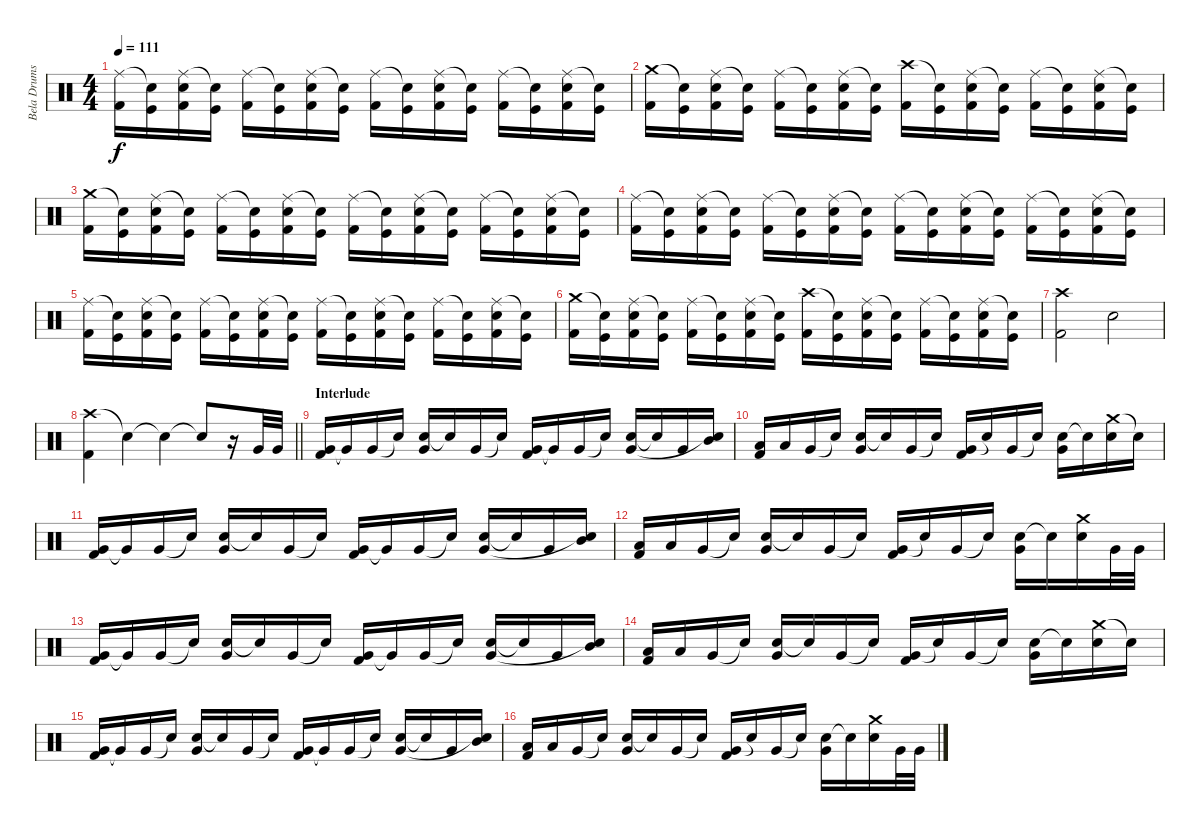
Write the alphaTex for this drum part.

\track ("Bela Drums" "Bela Drums") {instrument percussion}
\staff {score}
\articulation defaults
\ts (4 4)
\tempo 111
\clef neutral
\ks c
("Ride (middle)" "Kick (hit) 2").16{dy f} ("Snare (hit)"{t} "Kick (hit)").16 ("Ride (middle)" "Snare (hit) 2" "Kick (hit) 2").16 ("Snare (hit)"{t} "Kick (hit)").16 ("Ride (middle)" "Kick (hit) 2").16 ("Snare (hit)"{t} "Kick (hit)").16 ("Ride (middle)" "Snare (hit) 2" "Kick (hit) 2").16 ("Snare (hit)"{t} "Kick (hit)").16 ("Ride (middle)" "Kick (hit) 2").16 ("Snare (hit)"{t} "Kick (hit)").16 ("Ride (middle)" "Snare (hit) 2" "Kick (hit) 2").16 ("Snare (hit)"{t} "Kick (hit)").16 ("Ride (middle)" "Kick (hit) 2").16 ("Snare (hit)"{t} "Kick (hit)").16 ("Ride (middle)" "Snare (hit) 2" "Kick (hit) 2").16 ("Snare (hit)"{t} "Kick (hit)").16 |
("Crash medium (hit)" "Kick (hit) 2").16 ("Snare (hit)"{t} "Kick (hit)").16 ("Ride (middle)" "Snare (hit) 2" "Kick (hit) 2").16 ("Snare (hit)"{t} "Kick (hit)").16 ("Ride (middle)" "Kick (hit) 2").16 ("Snare (hit)"{t} "Kick (hit)").16 ("Ride (middle)" "Snare (hit) 2" "Kick (hit) 2").16 ("Snare (hit)"{t} "Kick (hit)").16 ("Crash high (hit)" "Kick (hit) 2").16 ("Snare (hit)"{t} "Kick (hit)").16 ("Ride (middle)" "Snare (hit) 2" "Kick (hit) 2").16 ("Snare (hit)"{t} "Kick (hit)").16 ("Ride (middle)" "Kick (hit) 2").16 ("Snare (hit)"{t} "Kick (hit)").16 ("Ride (middle)" "Snare (hit) 2" "Kick (hit) 2").16 ("Snare (hit)"{t} "Kick (hit)").16 |
("Crash medium (hit)" "Kick (hit) 2").16 ("Snare (hit)"{t} "Kick (hit)").16 ("Ride (middle)" "Snare (hit) 2" "Kick (hit) 2").16 ("Snare (hit)"{t} "Kick (hit)").16 ("Ride (middle)" "Kick (hit) 2").16 ("Snare (hit)"{t} "Kick (hit)").16 ("Ride (middle)" "Snare (hit) 2" "Kick (hit) 2").16 ("Snare (hit)"{t} "Kick (hit)").16 ("Ride (middle)" "Kick (hit) 2").16 ("Snare (hit)"{t} "Kick (hit)").16 ("Ride (middle)" "Snare (hit) 2" "Kick (hit) 2").16 ("Snare (hit)"{t} "Kick (hit)").16 ("Ride (middle)" "Kick (hit) 2").16 ("Snare (hit)"{t} "Kick (hit)").16 ("Ride (middle)" "Snare (hit) 2" "Kick (hit) 2").16 ("Snare (hit)"{t} "Kick (hit)").16 |
("Ride (middle)" "Kick (hit) 2").16 ("Snare (hit)"{t} "Kick (hit)").16 ("Ride (middle)" "Snare (hit) 2" "Kick (hit) 2").16 ("Snare (hit)"{t} "Kick (hit)").16 ("Ride (middle)" "Kick (hit) 2").16 ("Snare (hit)"{t} "Kick (hit)").16 ("Ride (middle)" "Snare (hit) 2" "Kick (hit) 2").16 ("Snare (hit)"{t} "Kick (hit)").16 ("Ride (middle)" "Kick (hit) 2").16 ("Snare (hit)"{t} "Kick (hit)").16 ("Ride (middle)" "Snare (hit) 2" "Kick (hit) 2").16 ("Snare (hit)"{t} "Kick (hit)").16 ("Ride (middle)" "Kick (hit) 2").16 ("Snare (hit)"{t} "Kick (hit)").16 ("Ride (middle)" "Snare (hit) 2" "Kick (hit) 2").16 ("Snare (hit)"{t} "Kick (hit)").16 |
("Ride (middle)" "Kick (hit) 2").16 ("Snare (hit)"{t} "Kick (hit)").16 ("Ride (middle)" "Snare (hit) 2" "Kick (hit) 2").16 ("Snare (hit)"{t} "Kick (hit)").16 ("Ride (middle)" "Kick (hit) 2").16 ("Snare (hit)"{t} "Kick (hit)").16 ("Ride (middle)" "Snare (hit) 2" "Kick (hit) 2").16 ("Snare (hit)"{t} "Kick (hit)").16 ("Ride (middle)" "Kick (hit) 2").16 ("Snare (hit)"{t} "Kick (hit)").16 ("Ride (middle)" "Snare (hit) 2" "Kick (hit) 2").16 ("Snare (hit)"{t} "Kick (hit)").16 ("Ride (middle)" "Kick (hit) 2").16 ("Snare (hit)"{t} "Kick (hit)").16 ("Ride (middle)" "Snare (hit) 2" "Kick (hit) 2").16 ("Snare (hit)"{t} "Kick (hit)").16 |
("Crash medium (hit)" "Kick (hit) 2").16 ("Snare (hit)"{t} "Kick (hit)").16 ("Ride (middle)" "Snare (hit) 2" "Kick (hit) 2").16 ("Snare (hit)"{t} "Kick (hit)").16 ("Ride (middle)" "Kick (hit) 2").16 ("Snare (hit)"{t} "Kick (hit)").16 ("Ride (middle)" "Snare (hit) 2" "Kick (hit) 2").16 ("Snare (hit)"{t} "Kick (hit)").16 ("Crash high (hit)" "Kick (hit) 2").16 ("Snare (hit)"{t} "Kick (hit)").16 ("Ride (middle)" "Snare (hit) 2" "Kick (hit) 2").16 ("Snare (hit)"{t} "Kick (hit)").16 ("Ride (middle)" "Kick (hit) 2").16 ("Snare (hit)"{t} "Kick (hit)").16 ("Ride (middle)" "Snare (hit) 2" "Kick (hit) 2").16 ("Snare (hit)"{t} "Kick (hit)").16 |
("Crash high (hit)" "Kick (hit) 2").2 "Snare (hit) 2".2 |
\barLineRight lightlight
("Crash high (hit)" "Kick (hit) 2").4 "Snare (hit)"{t}.4 "Snare (hit)"{t}.4 "Snare (hit)"{t}.8 r.16 "Very Low Tom (hit)".32 "Very Low Tom (hit)".32 |
\section ("" "Interlude")
("Very Low Tom (hit)" "Kick (hit) 2").16 "Very Low Tom (hit)"{t}.16 "Very Low Tom (hit)".16 "Snare (hit)"{t}.16 ("Snare (hit) 2" "Very Low Tom (hit)").16 "Snare (hit)"{t}.16 "Very Low Tom (hit)".16 "Snare (hit)"{t}.16 ("Very Low Tom (hit)" "Kick (hit) 2").16 "Very Low Tom (hit)"{t}.16 "Very Low Tom (hit)".16 "Snare (hit)"{t}.16 ("Snare (hit) 2" "Very Low Tom (hit)").16 "Snare (hit)"{t}.16 "Very Low Tom (hit)".16 ("Mid Tom (hit)" "Snare (hit)"{t}).16 |
("Low Tom (hit)" "Kick (hit) 2").16 "Low Tom (hit)".16 "Very Low Tom (hit)".16 "Snare (hit)"{t}.16 ("Snare (hit) 2" "Very Low Tom (hit)").16 "Snare (hit)"{t}.16 "Very Low Tom (hit)".16 "Snare (hit)"{t}.16 ("Very Low Tom (hit)" "Kick (hit) 2").16 "Snare (hit)"{t}.16 "Very Low Tom (hit)".16 "Snare (hit)"{t}.16 ("Snare (hit) 2" "Very Low Tom (hit)").16 "Snare (hit)"{t}.16 ("Crash medium (hit)" "Snare (hit) 2").16 "Snare (hit)"{t}.16 |
("Very Low Tom (hit)" "Kick (hit) 2").16 "Very Low Tom (hit)"{t}.16 "Very Low Tom (hit)".16 "Snare (hit)"{t}.16 ("Snare (hit) 2" "Very Low Tom (hit)").16 "Snare (hit)"{t}.16 "Very Low Tom (hit)".16 "Snare (hit)"{t}.16 ("Very Low Tom (hit)" "Kick (hit) 2").16 "Very Low Tom (hit)"{t}.16 "Very Low Tom (hit)".16 "Snare (hit)"{t}.16 ("Snare (hit) 2" "Very Low Tom (hit)").16 "Snare (hit)"{t}.16 "Very Low Tom (hit)".16 ("Mid Tom (hit)" "Snare (hit)"{t}).16 |
("Low Tom (hit)" "Kick (hit) 2").16 "Low Tom (hit)".16 "Very Low Tom (hit)".16 "Snare (hit)"{t}.16 ("Snare (hit) 2" "Very Low Tom (hit)").16 "Snare (hit)"{t}.16 "Very Low Tom (hit)".16 "Snare (hit)"{t}.16 ("Very Low Tom (hit)" "Kick (hit) 2").16 "Snare (hit)"{t}.16 "Very Low Tom (hit)".16 "Snare (hit)"{t}.16 ("Snare (hit) 2" "Very Low Tom (hit)").16 "Snare (hit)"{t}.16 ("Crash medium (hit)" "Snare (hit) 2").16 "Very Low Tom (hit)".32 "Very Low Tom (hit)".32 |
("Very Low Tom (hit)" "Kick (hit) 2").16 "Very Low Tom (hit)"{t}.16 "Very Low Tom (hit)".16 "Snare (hit)"{t}.16 ("Snare (hit) 2" "Very Low Tom (hit)").16 "Snare (hit)"{t}.16 "Very Low Tom (hit)".16 "Snare (hit)"{t}.16 ("Very Low Tom (hit)" "Kick (hit) 2").16 "Very Low Tom (hit)"{t}.16 "Very Low Tom (hit)".16 "Snare (hit)"{t}.16 ("Snare (hit) 2" "Very Low Tom (hit)").16 "Snare (hit)"{t}.16 "Very Low Tom (hit)".16 ("Mid Tom (hit)" "Snare (hit)"{t}).16 |
("Low Tom (hit)" "Kick (hit) 2").16 "Low Tom (hit)".16 "Very Low Tom (hit)".16 "Snare (hit)"{t}.16 ("Snare (hit) 2" "Very Low Tom (hit)").16 "Snare (hit)"{t}.16 "Very Low Tom (hit)".16 "Snare (hit)"{t}.16 ("Very Low Tom (hit)" "Kick (hit) 2").16 "Snare (hit)"{t}.16 "Very Low Tom (hit)".16 "Snare (hit)"{t}.16 ("Snare (hit) 2" "Very Low Tom (hit)").16 "Snare (hit)"{t}.16 ("Crash medium (hit)" "Snare (hit) 2").16 "Snare (hit)"{t}.16 |
("Very Low Tom (hit)" "Kick (hit) 2").16 "Very Low Tom (hit)"{t}.16 "Very Low Tom (hit)".16 "Snare (hit)"{t}.16 ("Snare (hit) 2" "Very Low Tom (hit)").16 "Snare (hit)"{t}.16 "Very Low Tom (hit)".16 "Snare (hit)"{t}.16 ("Very Low Tom (hit)" "Kick (hit) 2").16 "Very Low Tom (hit)"{t}.16 "Very Low Tom (hit)".16 "Snare (hit)"{t}.16 ("Snare (hit) 2" "Very Low Tom (hit)").16 "Snare (hit)"{t}.16 "Very Low Tom (hit)".16 ("Mid Tom (hit)" "Snare (hit)"{t}).16 |
("Low Tom (hit)" "Kick (hit) 2").16 "Low Tom (hit)".16 "Very Low Tom (hit)".16 "Snare (hit)"{t}.16 ("Snare (hit) 2" "Very Low Tom (hit)").16 "Snare (hit)"{t}.16 "Very Low Tom (hit)".16 "Snare (hit)"{t}.16 ("Very Low Tom (hit)" "Kick (hit) 2").16 "Snare (hit)"{t}.16 "Very Low Tom (hit)".16 "Snare (hit)"{t}.16 ("Snare (hit) 2" "Very Low Tom (hit)").16 "Snare (hit)"{t}.16 ("Crash medium (hit)" "Snare (hit) 2").16 "Very Low Tom (hit)".32 "Very Low Tom (hit)".32
